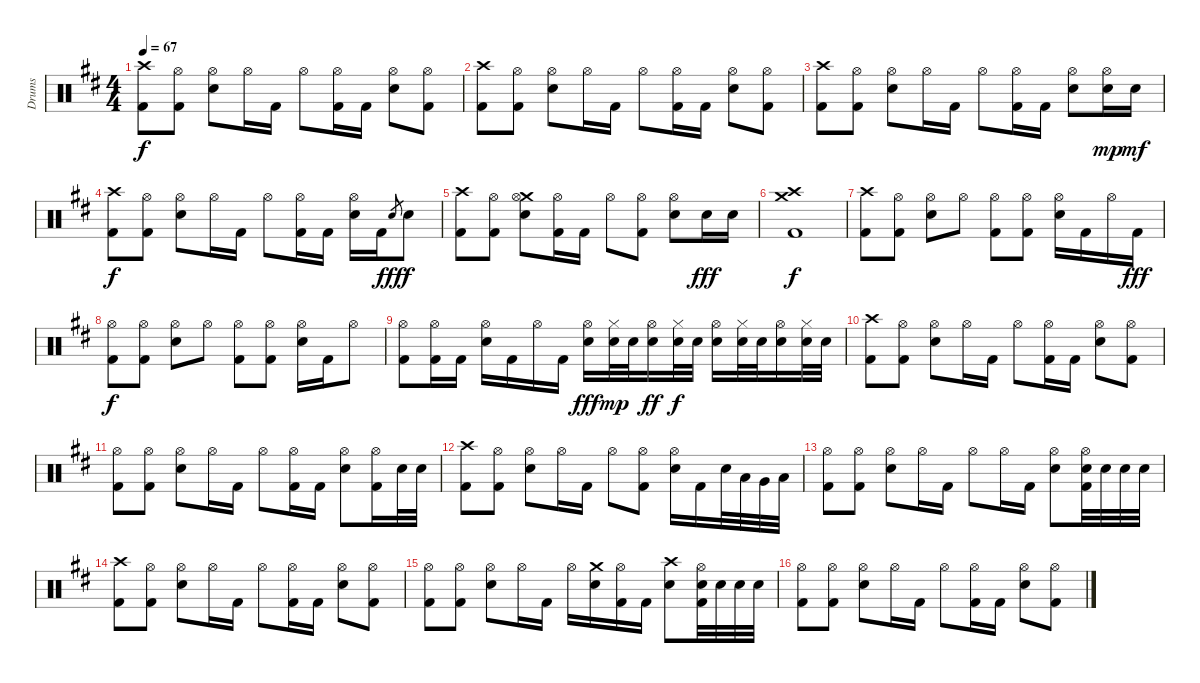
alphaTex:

\track ("Drums" "Drums") {instrument percussion}
\staff {score}
\articulation defaults
\ts (4 4)
\tempo 67
\clef neutral
\ks bminor
("Crash high (hit)" "Kick (hit) 2").8{dy f} ("Hi-Hat (open)" "Kick (hit) 2").8 ("Hi-Hat (open)" "Electric Snare (hit)").8 "Hi-Hat (open)".16 "Kick (hit) 2".16 "Hi-Hat (open)".8 ("Hi-Hat (open)" "Kick (hit) 2").16 "Kick (hit) 2".16 ("Hi-Hat (open)" "Electric Snare (hit)").8 ("Hi-Hat (open)" "Kick (hit) 2").8 |
("Crash high (hit)" "Kick (hit) 2").8 ("Hi-Hat (open)" "Kick (hit) 2").8 ("Hi-Hat (open)" "Electric Snare (hit)").8 "Hi-Hat (open)".16 "Kick (hit) 2".16 "Hi-Hat (open)".8 ("Hi-Hat (open)" "Kick (hit) 2").16 "Kick (hit) 2".16 ("Hi-Hat (open)" "Electric Snare (hit)").8 ("Hi-Hat (open)" "Kick (hit) 2").8 |
("Crash high (hit)" "Kick (hit) 2").8 ("Hi-Hat (open)" "Kick (hit) 2").8 ("Hi-Hat (open)" "Electric Snare (hit)").8 "Hi-Hat (open)".16 "Kick (hit) 2".16 "Hi-Hat (open)".8 ("Hi-Hat (open)" "Kick (hit) 2").16 "Kick (hit) 2".16 ("Hi-Hat (open)" "Electric Snare (hit)").8 ("Hi-Hat (open)" "Electric Snare (hit)").16{dy mp} "Electric Snare (hit)".16{dy mf} |
("Crash high (hit)" "Kick (hit) 2").8{dy f} ("Hi-Hat (open)" "Kick (hit) 2").8 ("Hi-Hat (open)" "Electric Snare (hit)").8 "Hi-Hat (open)".16 "Kick (hit) 2".16 "Hi-Hat (open)".8 ("Hi-Hat (open)" "Kick (hit) 2").16 "Kick (hit) 2".16 ("Hi-Hat (open)" "Electric Snare (hit)").16 "Kick (hit) 2".16 "Electric Snare (hit)".8{gr dy fff} "Electric Snare (hit)".8{dy f} |
("Crash high (hit)" "Kick (hit) 2").8 ("Hi-Hat (open)" "Kick (hit) 2").8 ("Crash medium (hit)" "Hi-Hat (open)" "Electric Snare (hit)").8 ("Hi-Hat (open)" "Kick (hit) 2").16 "Kick (hit) 2".16 "Hi-Hat (open)".8 ("Hi-Hat (open)" "Kick (hit) 2").8 ("Hi-Hat (open)" "Electric Snare (hit)").8 "Electric Snare (hit)".16{dy fff} "Electric Snare (hit)".16 |
("Crash high (hit)" "Crash medium (hit)" "Kick (hit) 2").1{dy f} |
("Crash high (hit)" "Kick (hit) 2").8 ("Hi-Hat (open)" "Kick (hit) 2").8 ("Hi-Hat (open)" "Electric Snare (hit)").8 "Hi-Hat (open)".8 ("Hi-Hat (open)" "Kick (hit) 2").8 ("Hi-Hat (open)" "Kick (hit) 2").8 ("Hi-Hat (open)" "Electric Snare (hit)").16 "Kick (hit) 2".16 "Hi-Hat (open)".16 "Kick (hit) 2".16{dy fff} |
("Hi-Hat (open)" "Kick (hit) 2").8{dy f} ("Hi-Hat (open)" "Kick (hit) 2").8 ("Hi-Hat (open)" "Electric Snare (hit)").8 "Hi-Hat (open)".8 ("Hi-Hat (open)" "Kick (hit) 2").8 ("Hi-Hat (open)" "Kick (hit) 2").8 ("Hi-Hat (open)" "Electric Snare (hit)").16 "Kick (hit) 2".16 "Hi-Hat (open)".8 |
("Hi-Hat (open)" "Kick (hit) 2").8 ("Hi-Hat (open)" "Kick (hit) 2").16 "Kick (hit) 2".16 ("Hi-Hat (open)" "Electric Snare (hit)").16 "Kick (hit) 2".16 "Hi-Hat (open)".16 "Kick (hit) 2".16 ("Hi-Hat (open)" "Electric Snare (hit)").16{dy fff} ("Hi-Hat (closed)" "Electric Snare (hit)").32{dy mp} "Electric Snare (hit)".32 ("Hi-Hat (open)" "Electric Snare (hit)").16{dy ff} ("Hi-Hat (closed)" "Electric Snare (hit)").32{dy f} "Electric Snare (hit)".32 ("Hi-Hat (open)" "Electric Snare (hit)").16 ("Hi-Hat (closed)" "Electric Snare (hit)").32 "Electric Snare (hit)".32 ("Hi-Hat (open)" "Electric Snare (hit)").16 ("Hi-Hat (closed)" "Electric Snare (hit)").32 "Electric Snare (hit)".32 |
("Crash high (hit)" "Kick (hit) 2").8 ("Hi-Hat (open)" "Kick (hit) 2").8 ("Hi-Hat (open)" "Electric Snare (hit)").8 "Hi-Hat (open)".16 "Kick (hit) 2".16 "Hi-Hat (open)".8 ("Hi-Hat (open)" "Kick (hit) 2").16 "Kick (hit) 2".16 ("Hi-Hat (open)" "Electric Snare (hit)").8 ("Hi-Hat (open)" "Kick (hit) 2").8 |
("Hi-Hat (open)" "Kick (hit) 2").8 ("Hi-Hat (open)" "Kick (hit) 2").8 ("Hi-Hat (open)" "Electric Snare (hit)").8 "Hi-Hat (open)".16 "Kick (hit) 2".16 "Hi-Hat (open)".8 ("Hi-Hat (open)" "Kick (hit) 2").16 "Kick (hit) 2".16 ("Hi-Hat (open)" "Electric Snare (hit)").8 ("Hi-Hat (open)" "Kick (hit) 2").16 "Electric Snare (hit)".32 "Electric Snare (hit)".32 |
("Crash high (hit)" "Kick (hit) 2").8 ("Hi-Hat (open)" "Kick (hit) 2").8 ("Hi-Hat (open)" "Electric Snare (hit)").8 "Hi-Hat (open)".16 "Kick (hit) 2".16 "Hi-Hat (open)".8 ("Hi-Hat (open)" "Kick (hit) 2").8 ("Hi-Hat (open)" "Electric Snare (hit)").16 "Kick (hit) 2".16 "Electric Snare (hit)".32 "Low Tom (hit)".32 "Very Low Tom (hit)".32 "Low Floor Tom (hit)".32 |
("Hi-Hat (open)" "Kick (hit) 2").8 ("Hi-Hat (open)" "Kick (hit) 2").8 ("Hi-Hat (open)" "Electric Snare (hit)").8 "Hi-Hat (open)".16 "Kick (hit) 2".16 "Hi-Hat (open)".8 "Hi-Hat (open)".16 "Kick (hit) 2".16 ("Hi-Hat (open)" "Electric Snare (hit)").8 ("Hi-Hat (open)" "Electric Snare (hit)" "Kick (hit) 2").32 "Electric Snare (hit)".32 "Electric Snare (hit)".32 "Electric Snare (hit)".32 |
("Crash high (hit)" "Kick (hit) 2").8 ("Hi-Hat (open)" "Kick (hit) 2").8 ("Hi-Hat (open)" "Electric Snare (hit)").8 "Hi-Hat (open)".16 "Kick (hit) 2".16 "Hi-Hat (open)".8 ("Hi-Hat (open)" "Kick (hit) 2").16 "Kick (hit) 2".16 ("Hi-Hat (open)" "Electric Snare (hit)").8 ("Hi-Hat (open)" "Kick (hit) 2").8 |
("Hi-Hat (open)" "Kick (hit) 2").8 ("Hi-Hat (open)" "Kick (hit) 2").8 ("Hi-Hat (open)" "Electric Snare (hit)").8 "Hi-Hat (open)".16 "Kick (hit) 2".16 "Hi-Hat (open)".16 ("Crash medium (hit)" "Electric Snare (hit)").16 ("Hi-Hat (open)" "Kick (hit) 2").16 "Kick (hit) 2".16 ("Crash high (hit)" "Electric Snare (hit)").8 ("Hi-Hat (open)" "Electric Snare (hit)" "Kick (hit) 2").32 "Electric Snare (hit)".32 "Electric Snare (hit)".32 "Electric Snare (hit)".32 |
("Hi-Hat (open)" "Kick (hit) 2").8 ("Hi-Hat (open)" "Kick (hit) 2").8 ("Hi-Hat (open)" "Electric Snare (hit)").8 "Hi-Hat (open)".16 "Kick (hit) 2".16 "Hi-Hat (open)".8 ("Hi-Hat (open)" "Kick (hit) 2").16 "Kick (hit) 2".16 ("Hi-Hat (open)" "Electric Snare (hit)").8 ("Hi-Hat (open)" "Kick (hit) 2").8
